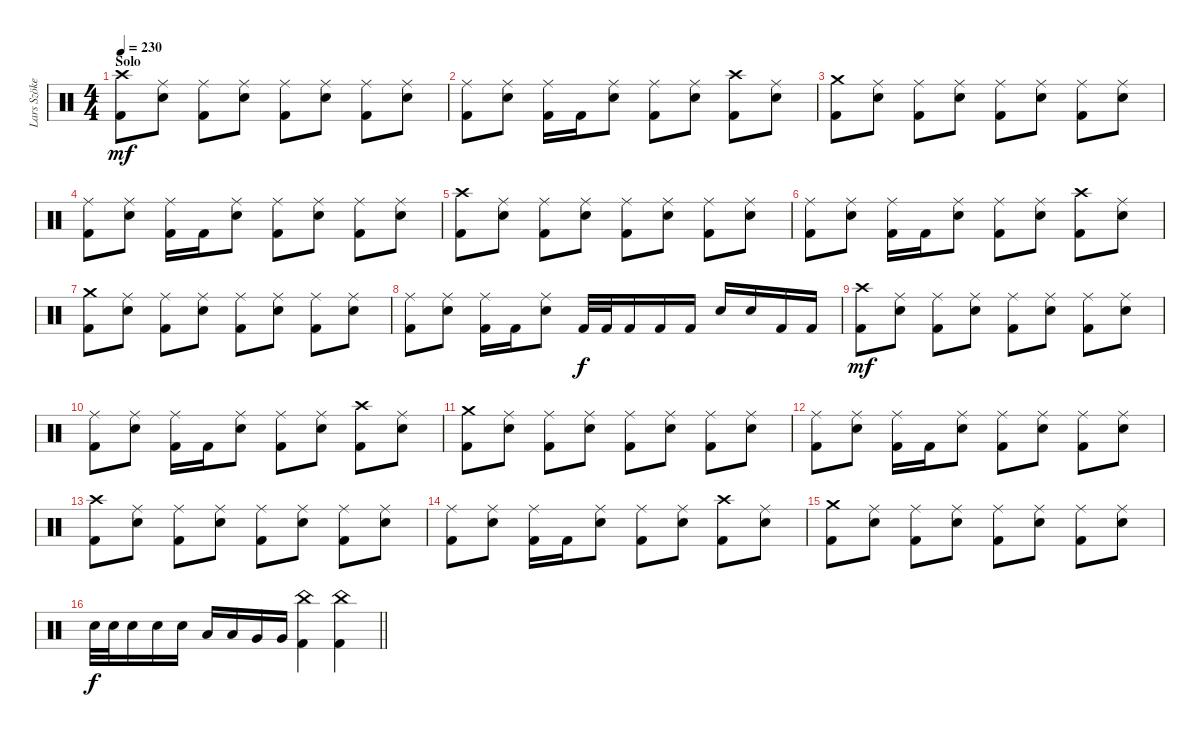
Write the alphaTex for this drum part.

\track ("Lars Szöke" "Lars Szöke") {instrument percussion}
\staff {score}
\articulation defaults
\ts (4 4)
\section ("" "Solo")
\tempo 230
\clef neutral
\ks c
("Crash high (hit)" "Kick (hit) 2").8{dy mf} ("Ride (middle)" "Snare (hit) 2").8 ("Ride (middle)" "Kick (hit) 2").8 ("Ride (middle)" "Snare (hit) 2").8 ("Ride (middle)" "Kick (hit) 2").8 ("Ride (middle)" "Snare (hit) 2").8 ("Ride (middle)" "Kick (hit) 2").8 ("Ride (middle)" "Snare (hit) 2").8 |
("Ride (middle)" "Kick (hit) 2").8 ("Ride (middle)" "Snare (hit) 2").8 ("Ride (middle)" "Kick (hit) 2").16 "Kick (hit) 2".16 ("Ride (middle)" "Snare (hit) 2").8 ("Ride (middle)" "Kick (hit) 2").8 ("Ride (middle)" "Snare (hit) 2").8 ("Crash high (hit)" "Kick (hit) 2").8 ("Ride (middle)" "Snare (hit) 2").8 |
("Crash medium (hit)" "Kick (hit) 2").8 ("Ride (middle)" "Snare (hit) 2").8 ("Ride (middle)" "Kick (hit) 2").8 ("Ride (middle)" "Snare (hit) 2").8 ("Ride (middle)" "Kick (hit) 2").8 ("Ride (middle)" "Snare (hit) 2").8 ("Ride (middle)" "Kick (hit) 2").8 ("Ride (middle)" "Snare (hit) 2").8 |
("Ride (middle)" "Kick (hit) 2").8 ("Ride (middle)" "Snare (hit) 2").8 ("Ride (middle)" "Kick (hit) 2").16 "Kick (hit) 2".16 ("Ride (middle)" "Snare (hit) 2").8 ("Ride (middle)" "Kick (hit) 2").8 ("Ride (middle)" "Snare (hit) 2").8 ("Ride (middle)" "Kick (hit) 2").8 ("Ride (middle)" "Snare (hit) 2").8 |
("Crash high (hit)" "Kick (hit) 2").8 ("Ride (middle)" "Snare (hit) 2").8 ("Ride (middle)" "Kick (hit) 2").8 ("Ride (middle)" "Snare (hit) 2").8 ("Ride (middle)" "Kick (hit) 2").8 ("Ride (middle)" "Snare (hit) 2").8 ("Ride (middle)" "Kick (hit) 2").8 ("Ride (middle)" "Snare (hit) 2").8 |
("Ride (middle)" "Kick (hit) 2").8 ("Ride (middle)" "Snare (hit) 2").8 ("Ride (middle)" "Kick (hit) 2").16 "Kick (hit) 2".16 ("Ride (middle)" "Snare (hit) 2").8 ("Ride (middle)" "Kick (hit) 2").8 ("Ride (middle)" "Snare (hit) 2").8 ("Crash high (hit)" "Kick (hit) 2").8 ("Ride (middle)" "Snare (hit) 2").8 |
("Crash medium (hit)" "Kick (hit) 2").8 ("Ride (middle)" "Snare (hit) 2").8 ("Ride (middle)" "Kick (hit) 2").8 ("Ride (middle)" "Snare (hit) 2").8 ("Ride (middle)" "Kick (hit) 2").8 ("Ride (middle)" "Snare (hit) 2").8 ("Ride (middle)" "Kick (hit) 2").8 ("Ride (middle)" "Snare (hit) 2").8 |
("Ride (middle)" "Kick (hit) 2").8 ("Ride (middle)" "Snare (hit) 2").8 ("Ride (middle)" "Kick (hit) 2").16 "Kick (hit) 2".16 ("Ride (middle)" "Snare (hit) 2").8 "Kick (hit) 2".32{dy f} "Kick (hit) 2".32 "Kick (hit) 2".16 "Kick (hit) 2".16 "Kick (hit) 2".16 "Snare (hit) 2".16 "Snare (hit) 2".16 "Kick (hit) 2".16 "Kick (hit) 2".16 |
("Crash high (hit)" "Kick (hit) 2").8{dy mf} ("Ride (middle)" "Snare (hit) 2").8 ("Ride (middle)" "Kick (hit) 2").8 ("Ride (middle)" "Snare (hit) 2").8 ("Ride (middle)" "Kick (hit) 2").8 ("Ride (middle)" "Snare (hit) 2").8 ("Ride (middle)" "Kick (hit) 2").8 ("Ride (middle)" "Snare (hit) 2").8 |
("Ride (middle)" "Kick (hit) 2").8 ("Ride (middle)" "Snare (hit) 2").8 ("Ride (middle)" "Kick (hit) 2").16 "Kick (hit) 2".16 ("Ride (middle)" "Snare (hit) 2").8 ("Ride (middle)" "Kick (hit) 2").8 ("Ride (middle)" "Snare (hit) 2").8 ("Crash high (hit)" "Kick (hit) 2").8 ("Ride (middle)" "Snare (hit) 2").8 |
("Crash medium (hit)" "Kick (hit) 2").8 ("Ride (middle)" "Snare (hit) 2").8 ("Ride (middle)" "Kick (hit) 2").8 ("Ride (middle)" "Snare (hit) 2").8 ("Ride (middle)" "Kick (hit) 2").8 ("Ride (middle)" "Snare (hit) 2").8 ("Ride (middle)" "Kick (hit) 2").8 ("Ride (middle)" "Snare (hit) 2").8 |
("Ride (middle)" "Kick (hit) 2").8 ("Ride (middle)" "Snare (hit) 2").8 ("Ride (middle)" "Kick (hit) 2").16 "Kick (hit) 2".16 ("Ride (middle)" "Snare (hit) 2").8 ("Ride (middle)" "Kick (hit) 2").8 ("Ride (middle)" "Snare (hit) 2").8 ("Ride (middle)" "Kick (hit) 2").8 ("Ride (middle)" "Snare (hit) 2").8 |
("Crash high (hit)" "Kick (hit) 2").8 ("Ride (middle)" "Snare (hit) 2").8 ("Ride (middle)" "Kick (hit) 2").8 ("Ride (middle)" "Snare (hit) 2").8 ("Ride (middle)" "Kick (hit) 2").8 ("Ride (middle)" "Snare (hit) 2").8 ("Ride (middle)" "Kick (hit) 2").8 ("Ride (middle)" "Snare (hit) 2").8 |
("Ride (middle)" "Kick (hit) 2").8 ("Ride (middle)" "Snare (hit) 2").8 ("Ride (middle)" "Kick (hit) 2").16 "Kick (hit) 2".16 ("Ride (middle)" "Snare (hit) 2").8 ("Ride (middle)" "Kick (hit) 2").8 ("Ride (middle)" "Snare (hit) 2").8 ("Crash high (hit)" "Kick (hit) 2").8 ("Ride (middle)" "Snare (hit) 2").8 |
("Crash medium (hit)" "Kick (hit) 2").8 ("Ride (middle)" "Snare (hit) 2").8 ("Ride (middle)" "Kick (hit) 2").8 ("Ride (middle)" "Snare (hit) 2").8 ("Ride (middle)" "Kick (hit) 2").8 ("Ride (middle)" "Snare (hit) 2").8 ("Ride (middle)" "Kick (hit) 2").8 ("Ride (middle)" "Snare (hit) 2").8 |
\barLineRight lightlight "Snare (hit) 2".32{dy f} "Snare (hit) 2".32 "Snare (hit) 2".16 "Snare (hit) 2".16 "Snare (hit) 2".16 "Low Tom (hit)".16 "Low Tom (hit)".16 "Very Low Tom (hit)".16 "Very Low Tom (hit)".16
("China (hit)" "Kick (hit) 2").4 ("China (hit)" "Kick (hit) 2").4
